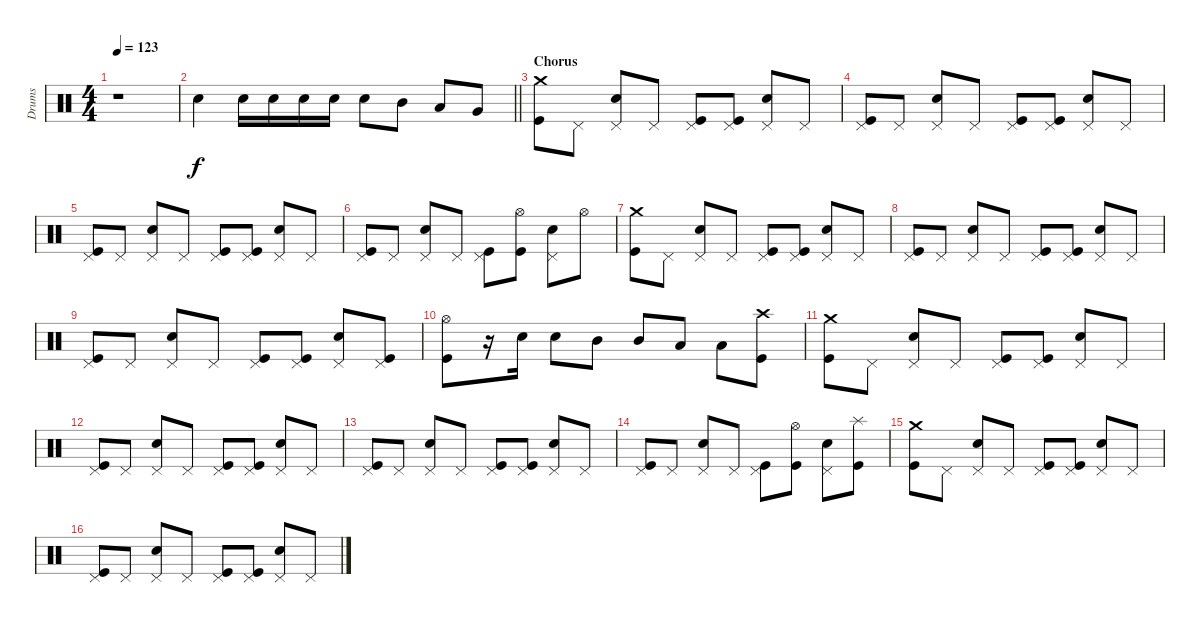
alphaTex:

\track ("Drums" "Drums") {instrument percussion}
\staff {score}
\articulation defaults
\ts (4 4)
\tempo 123
\clef neutral
\ks c
r.1{dy f} |
\barLineRight lightlight "Electric Snare (hit)".4 "Electric Snare (hit)".16 "Electric Snare (hit)".16 "Electric Snare (hit)".16 "Electric Snare (hit)".16 "Electric Snare (hit)".8 "Mid Tom (hit)".8 "Low Tom (hit)".8 "Very Low Tom (hit)".8
|
\section ("" "Chorus")
("Crash medium (hit)" "Kick (hit)").8 "Pedal Hi-Hat (hit)".8 ("Pedal Hi-Hat (hit)" "Electric Snare (hit)").8 "Pedal Hi-Hat (hit)".8 ("Pedal Hi-Hat (hit)" "Kick (hit)").8 ("Pedal Hi-Hat (hit)" "Kick (hit)").8 ("Pedal Hi-Hat (hit)" "Electric Snare (hit)").8 "Pedal Hi-Hat (hit)".8 |
("Pedal Hi-Hat (hit)" "Kick (hit)").8 "Pedal Hi-Hat (hit)".8 ("Pedal Hi-Hat (hit)" "Electric Snare (hit)").8 "Pedal Hi-Hat (hit)".8 ("Pedal Hi-Hat (hit)" "Kick (hit)").8 ("Pedal Hi-Hat (hit)" "Kick (hit)").8 ("Pedal Hi-Hat (hit)" "Electric Snare (hit)").8 "Pedal Hi-Hat (hit)".8 |
("Pedal Hi-Hat (hit)" "Kick (hit)").8 "Pedal Hi-Hat (hit)".8 ("Pedal Hi-Hat (hit)" "Electric Snare (hit)").8 "Pedal Hi-Hat (hit)".8 ("Pedal Hi-Hat (hit)" "Kick (hit)").8 ("Pedal Hi-Hat (hit)" "Kick (hit)").8 ("Pedal Hi-Hat (hit)" "Electric Snare (hit)").8 "Pedal Hi-Hat (hit)".8 |
("Pedal Hi-Hat (hit)" "Kick (hit)").8 "Pedal Hi-Hat (hit)".8 ("Pedal Hi-Hat (hit)" "Electric Snare (hit)").8 "Pedal Hi-Hat (hit)".8 ("Pedal Hi-Hat (hit)" "Kick (hit)").8 ("Hi-Hat (open)" "Kick (hit)").8 ("Pedal Hi-Hat (hit)" "Electric Snare (hit)").8 "Hi-Hat (open)".8 |
("Crash medium (hit)" "Kick (hit)").8 "Pedal Hi-Hat (hit)".8 ("Pedal Hi-Hat (hit)" "Electric Snare (hit)").8 "Pedal Hi-Hat (hit)".8 ("Pedal Hi-Hat (hit)" "Kick (hit)").8 ("Pedal Hi-Hat (hit)" "Kick (hit)").8 ("Pedal Hi-Hat (hit)" "Electric Snare (hit)").8 "Pedal Hi-Hat (hit)".8 |
("Pedal Hi-Hat (hit)" "Kick (hit)").8 "Pedal Hi-Hat (hit)".8 ("Pedal Hi-Hat (hit)" "Electric Snare (hit)").8 "Pedal Hi-Hat (hit)".8 ("Pedal Hi-Hat (hit)" "Kick (hit)").8 ("Pedal Hi-Hat (hit)" "Kick (hit)").8 ("Pedal Hi-Hat (hit)" "Electric Snare (hit)").8 "Pedal Hi-Hat (hit)".8 |
("Pedal Hi-Hat (hit)" "Kick (hit)").8 "Pedal Hi-Hat (hit)".8 ("Pedal Hi-Hat (hit)" "Electric Snare (hit)").8 "Pedal Hi-Hat (hit)".8 ("Pedal Hi-Hat (hit)" "Kick (hit)").8 ("Pedal Hi-Hat (hit)" "Kick (hit)").8 ("Pedal Hi-Hat (hit)" "Electric Snare (hit)").8 ("Pedal Hi-Hat (hit)" "Kick (hit)").8 |
("Hi-Hat (open)" "Kick (hit)").8 r.16 "Snare (hit) 2".16 "Snare (hit) 2".8 "Mid Tom (hit)".8 "Mid Tom (hit)".8 "Low Tom (hit)".8 "Low Tom (hit)".8 ("Crash high (hit)" "Kick (hit)").8 |
("Crash medium (hit)" "Kick (hit)").8 "Pedal Hi-Hat (hit)".8 ("Pedal Hi-Hat (hit)" "Electric Snare (hit)").8 "Pedal Hi-Hat (hit)".8 ("Pedal Hi-Hat (hit)" "Kick (hit)").8 ("Pedal Hi-Hat (hit)" "Kick (hit)").8 ("Pedal Hi-Hat (hit)" "Electric Snare (hit)").8 "Pedal Hi-Hat (hit)".8 |
("Pedal Hi-Hat (hit)" "Kick (hit)").8 "Pedal Hi-Hat (hit)".8 ("Pedal Hi-Hat (hit)" "Electric Snare (hit)").8 "Pedal Hi-Hat (hit)".8 ("Pedal Hi-Hat (hit)" "Kick (hit)").8 ("Pedal Hi-Hat (hit)" "Kick (hit)").8 ("Pedal Hi-Hat (hit)" "Electric Snare (hit)").8 "Pedal Hi-Hat (hit)".8 |
("Pedal Hi-Hat (hit)" "Kick (hit)").8 "Pedal Hi-Hat (hit)".8 ("Pedal Hi-Hat (hit)" "Electric Snare (hit)").8 "Pedal Hi-Hat (hit)".8 ("Pedal Hi-Hat (hit)" "Kick (hit)").8 ("Pedal Hi-Hat (hit)" "Kick (hit)").8 ("Pedal Hi-Hat (hit)" "Electric Snare (hit)").8 "Pedal Hi-Hat (hit)".8 |
("Pedal Hi-Hat (hit)" "Kick (hit)").8 "Pedal Hi-Hat (hit)".8 ("Pedal Hi-Hat (hit)" "Electric Snare (hit)").8 "Pedal Hi-Hat (hit)".8 ("Pedal Hi-Hat (hit)" "Kick (hit)").8 ("Hi-Hat (open)" "Kick (hit)").8 ("Pedal Hi-Hat (hit)" "Electric Snare (hit)").8 ("Splash (hit)" "Kick (hit)").8 |
("Crash medium (hit)" "Kick (hit)").8 "Pedal Hi-Hat (hit)".8 ("Pedal Hi-Hat (hit)" "Electric Snare (hit)").8 "Pedal Hi-Hat (hit)".8 ("Pedal Hi-Hat (hit)" "Kick (hit)").8 ("Pedal Hi-Hat (hit)" "Kick (hit)").8 ("Pedal Hi-Hat (hit)" "Electric Snare (hit)").8 "Pedal Hi-Hat (hit)".8 |
("Pedal Hi-Hat (hit)" "Kick (hit)").8 "Pedal Hi-Hat (hit)".8 ("Pedal Hi-Hat (hit)" "Electric Snare (hit)").8 "Pedal Hi-Hat (hit)".8 ("Pedal Hi-Hat (hit)" "Kick (hit)").8 ("Pedal Hi-Hat (hit)" "Kick (hit)").8 ("Pedal Hi-Hat (hit)" "Electric Snare (hit)").8 "Pedal Hi-Hat (hit)".8
